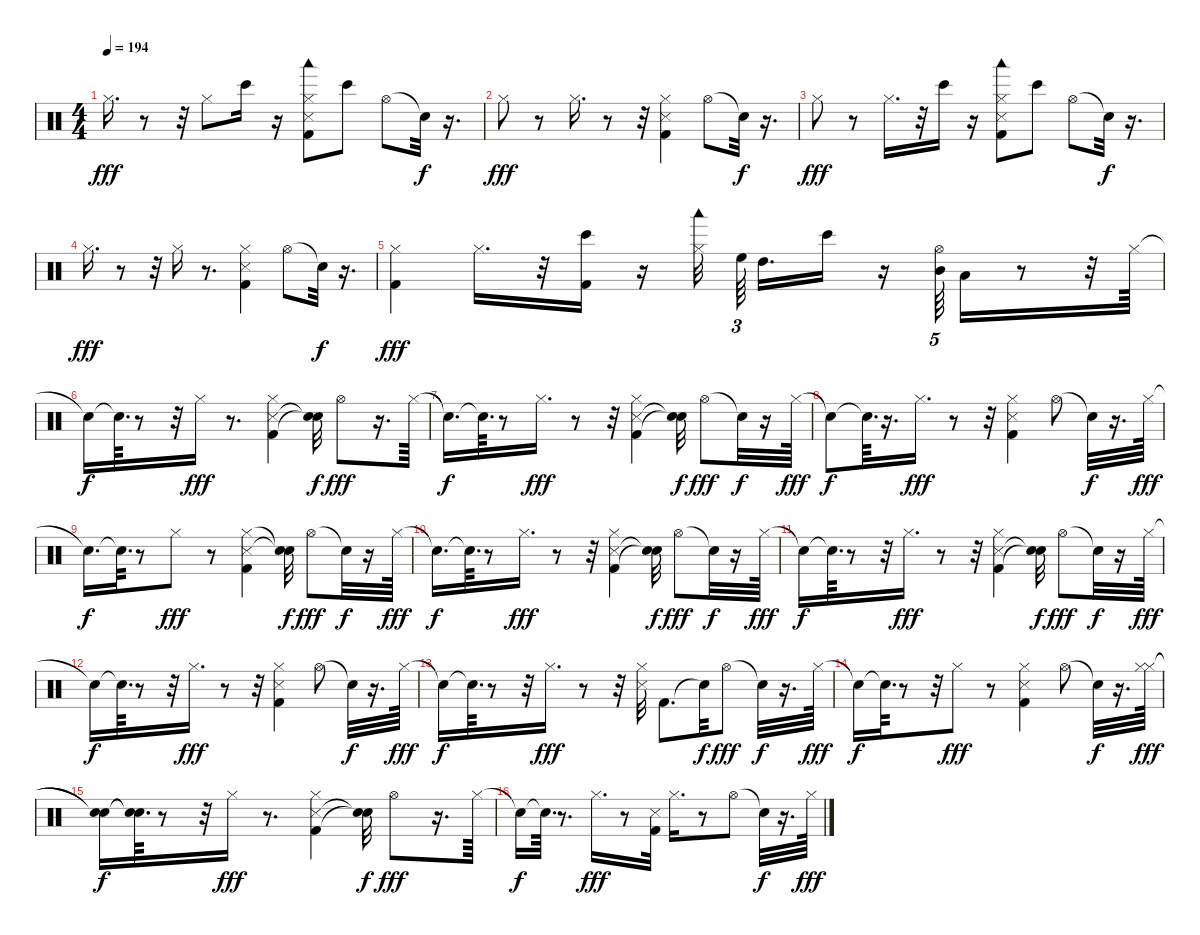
\track "" {instrument percussion}
\staff {score}
\articulation defaults
\ts (4 4)
\tempo 194
\clef neutral
\ks c "Hi-Hat (closed)".16{d dy fff}
r.8 r.32 "Hi-Hat (closed)".8 "Bongo High (hit)".16 r.16 ("Hi-Hat (closed)" "Snare (side stick) 3" "Kick (hit) 2" "Woodblock low (hit)").8 "Bongo High (hit)".8 "Hi-Hat (open)".8 "Snare (hit)"{t}.32{dy f} r.16{d} |
"Hi-Hat (closed)".8{dy fff} r.8 "Hi-Hat (closed)".16{d} r.8 r.32 ("Snare (side stick) 3" "Kick (hit) 2" "Hi-Hat (closed)").4 "Hi-Hat (open)".8 "Snare (hit)"{t}.32{dy f} r.16{d} |
"Hi-Hat (closed)".8{dy fff} r.8 "Hi-Hat (closed)".16{d} r.32 "Bongo High (hit)".16 r.16 ("Snare (side stick) 3" "Kick (hit) 2" "Hi-Hat (closed)" "Woodblock low (hit)").8 "Bongo High (hit)".8 "Hi-Hat (open)".8 "Snare (hit)"{t}.32{dy f} r.16{d} |
"Hi-Hat (closed)".16{d dy fff} r.8 r.32 "Hi-Hat (closed)".16 r.8{d} ("Kick (hit) 2" "Snare (side stick) 3" "Hi-Hat (closed)").4 "Hi-Hat (open)".8 "Snare (hit)"{t}.32{dy f} r.16{d} |
("Kick (hit) 2" "Hi-Hat (closed)").4{dy fff} "Hi-Hat (closed)".16{d} r.32 ("Kick (hit) 2" "Bongo High (hit)").16 r.16 ("Hi-Hat (closed)" "Woodblock low (hit)").32{beam splitsecondary} "High Floor Tom (hit)".64{tu (3 2) beam splitsecondary} "High Tom (hit)".16{d} "Bongo High (hit)".16 r.16 ("Hi-Hat (open)" "Mid Tom (hit)").64{tu (5 4)} "Low Tom (hit)".16 r.8 r.32 "Hi-Hat (closed)".64 |
"Snare (hit)"{t}.16{dy f} "Snare (hit)"{t}.64{d} r.8 r.32 "Hi-Hat (closed)".16{dy fff} r.8{d} ("Snare (side stick) 3" "Kick (hit) 2" "Hi-Hat (closed)").4 ("Snare (hit)"{t} "Snare (hit)"{t}).32{dy f} "Hi-Hat (open)".8{dy fff} r.16{d} "Hi-Hat (closed)".64 |
"Snare (hit)"{t}.16{d dy f} "Snare (hit)"{t}.64{d} r.8 "Hi-Hat (closed)".16{d dy fff} r.8 r.32 ("Snare (side stick) 3" "Kick (hit) 2" "Hi-Hat (closed)").4 ("Snare (hit)"{t} "Snare (hit)"{t}).32{dy f} "Hi-Hat (open)".8{dy fff} "Snare (hit)"{t}.32{dy f} r.16 "Hi-Hat (closed)".64{dy fff} |
"Snare (hit)"{t}.8{dy f} "Snare (hit)"{t}.64{d} r.16{d} "Hi-Hat (closed)".16{d dy fff} r.8 r.32 ("Snare (side stick) 3" "Kick (hit) 2" "Hi-Hat (closed)").4 "Hi-Hat (open)".8 "Snare (hit)"{t}.32{dy f} r.16{d} "Hi-Hat (closed)".64{dy fff} |
"Snare (hit)"{t}.16{d dy f} "Snare (hit)"{t}.64{d} r.8 "Hi-Hat (closed)".8{dy fff} r.8 ("Hi-Hat (closed)" "Snare (side stick) 3" "Kick (hit) 2").4 ("Snare (hit)"{t} "Snare (hit)"{t}).32{dy f} "Hi-Hat (open)".8{dy fff} "Snare (hit)"{t}.32{dy f} r.16 "Hi-Hat (closed)".64{dy fff} |
"Snare (hit)"{t}.16{d dy f} "Snare (hit)"{t}.64{d} r.8 "Hi-Hat (closed)".16{d dy fff} r.8 r.32 ("Snare (side stick) 3" "Kick (hit) 2" "Hi-Hat (closed)").4 ("Snare (hit)"{t} "Snare (hit)"{t}).32{dy f} "Hi-Hat (open)".8{dy fff} "Snare (hit)"{t}.32{dy f} r.16 "Hi-Hat (closed)".64{dy fff} |
"Snare (hit)"{t}.16{dy f} "Snare (hit)"{t}.64{d} r.8 r.32 "Hi-Hat (closed)".16{d dy fff} r.8 r.32 ("Snare (side stick) 3" "Kick (hit) 2" "Hi-Hat (closed)").4 ("Snare (hit)"{t} "Snare (hit)"{t}).32{dy f} "Hi-Hat (open)".8{dy fff} "Snare (hit)"{t}.32{dy f} r.16 "Hi-Hat (closed)".64{dy fff} |
"Snare (hit)"{t}.16{dy f} "Snare (hit)"{t}.64{d} r.8 r.32 "Hi-Hat (closed)".16{d dy fff} r.8 r.32 ("Snare (side stick) 3" "Kick (hit) 2" "Hi-Hat (closed)").4 "Hi-Hat (open)".8 "Snare (hit)"{t}.32{dy f} r.16{d} "Hi-Hat (closed)".64{dy fff} |
"Snare (hit)"{t}.16{dy f} "Snare (hit)"{t}.64{d} r.8 r.32 "Hi-Hat (closed)".16{d dy fff} r.8 r.32 ("Hi-Hat (closed)" "Snare (side stick) 3").32 "Kick (hit) 2".8{d} "Snare (hit)"{t}.32{dy f} "Hi-Hat (open)".8{dy fff} "Snare (hit)"{t}.32{dy f} r.16{d} "Hi-Hat (closed)".64{dy fff} |
"Snare (hit)"{t}.16{dy f} "Snare (hit)"{t}.64{d} r.8 r.32 "Hi-Hat (closed)".8{dy fff} r.8 ("Snare (side stick) 3" "Kick (hit) 2" "Hi-Hat (closed)").4 "Hi-Hat (open)".8 "Snare (hit)"{t}.32{dy f} r.16{d} ("Hi-Hat (closed)" "Hi-Hat (closed)").64{dy fff} |
("Snare (hit)"{t} "Snare (hit)"{t}).16{dy f} ("Snare (hit)"{t} "Snare (hit)"{t}).64{d} r.8 r.32 "Hi-Hat (closed)".16{dy fff} r.8{d} ("Snare (side stick) 3" "Kick (hit) 2" "Hi-Hat (closed)").4 ("Snare (hit)"{t} "Snare (hit)"{t}).32{dy f} "Hi-Hat (open)".8{dy fff} r.16{d} "Hi-Hat (closed)".64 |
"Snare (hit)"{t}.16{dy f} "Snare (hit)"{t}.64{d} r.8{d} "Hi-Hat (closed)".16{d dy fff} r.8 ("Snare (side stick) 3" "Kick (hit) 2").32 "Hi-Hat (closed)".16{d} r.8 "Hi-Hat (open)".8 "Snare (hit)"{t}.32{dy f} r.16{d} "Hi-Hat (closed)".64{dy fff}
